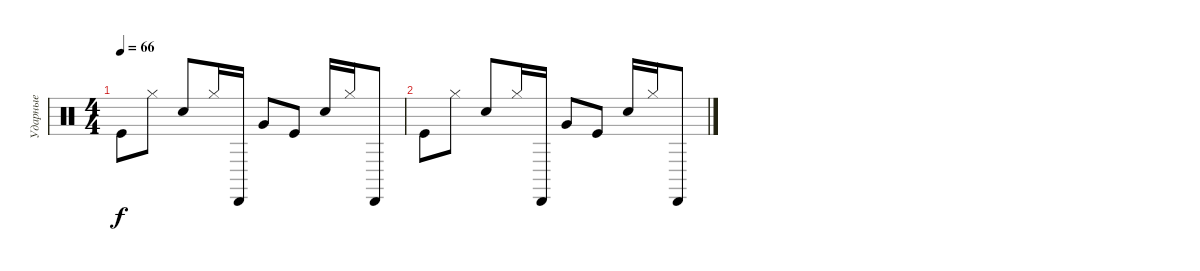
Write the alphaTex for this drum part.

\track ("Ударные" "Ударные") {instrument percussion}
\staff {score}
\articulation defaults
\ts (4 4)
\tempo 66
\clef neutral
\ks c "Kick (hit)".8{dy f} "Hi-Hat (closed)".8 "Snare (hit) 2".8 "Hi-Hat (closed)".16 "Cabasa (hit)".16 "Very Low Tom (hit)".8 "Kick (hit)".8 "Snare (hit) 2".16 "Hi-Hat (closed)".16 "Cabasa (hit)".8
|
"Kick (hit)".8 "Hi-Hat (closed)".8 "Snare (hit) 2".8 "Hi-Hat (closed)".16 "Cabasa (hit)".16 "Very Low Tom (hit)".8 "Kick (hit)".8 "Snare (hit) 2".16 "Hi-Hat (closed)".16 "Cabasa (hit)".8
